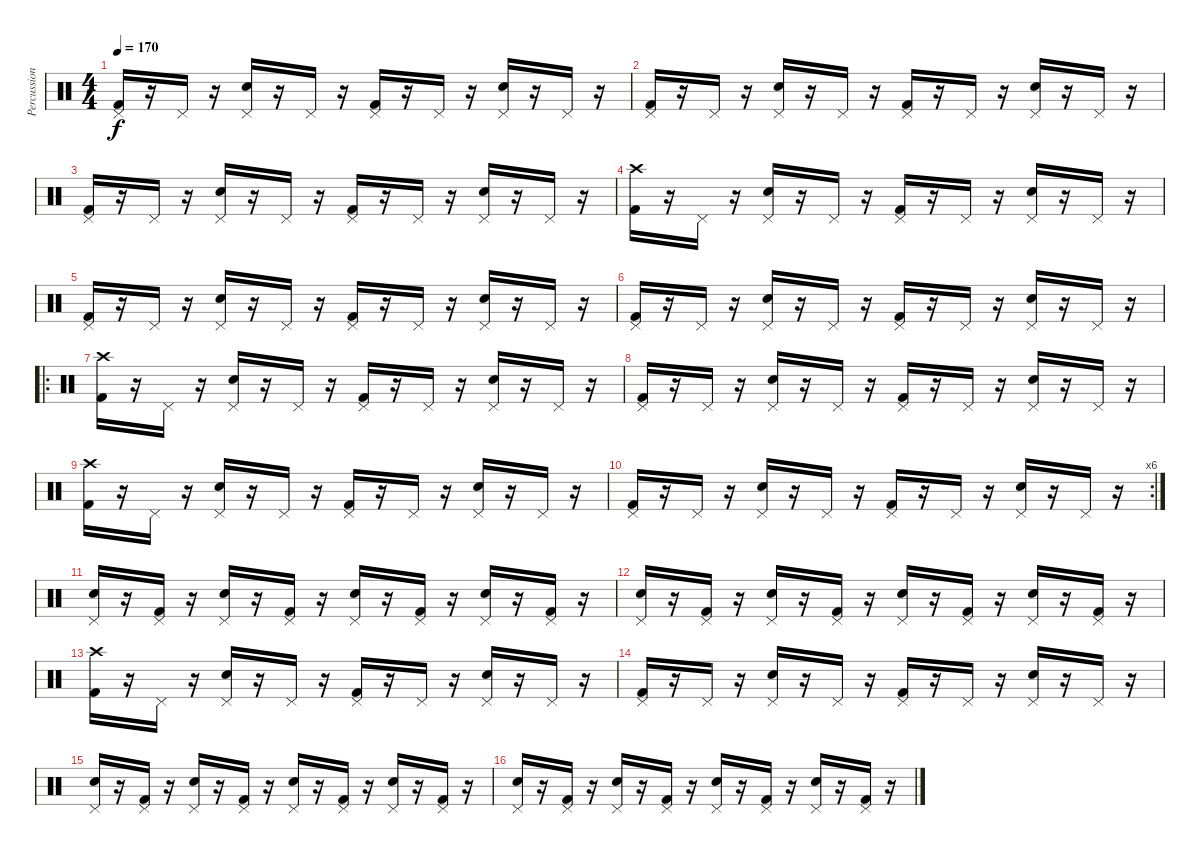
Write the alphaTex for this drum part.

\track ("Percussion" "Percussion") {instrument percussion}
\staff {score}
\articulation defaults
\ts (4 4)
\tempo 170
\clef neutral
\ks c
("Pedal Hi-Hat (hit)" "Kick (hit) 2").16{dy f} r.16 "Pedal Hi-Hat (hit)".16 r.16 ("Pedal Hi-Hat (hit)" "Snare (hit) 2").16 r.16 "Pedal Hi-Hat (hit)".16 r.16 ("Pedal Hi-Hat (hit)" "Kick (hit) 2").16 r.16 "Pedal Hi-Hat (hit)".16 r.16 ("Pedal Hi-Hat (hit)" "Snare (hit) 2").16 r.16 "Pedal Hi-Hat (hit)".16 r.16 |
("Pedal Hi-Hat (hit)" "Kick (hit) 2").16 r.16 "Pedal Hi-Hat (hit)".16 r.16 ("Pedal Hi-Hat (hit)" "Snare (hit) 2").16 r.16 "Pedal Hi-Hat (hit)".16 r.16 ("Pedal Hi-Hat (hit)" "Kick (hit) 2").16 r.16 "Pedal Hi-Hat (hit)".16 r.16 ("Pedal Hi-Hat (hit)" "Snare (hit) 2").16 r.16 "Pedal Hi-Hat (hit)".16 r.16 |
("Pedal Hi-Hat (hit)" "Kick (hit) 2").16 r.16 "Pedal Hi-Hat (hit)".16 r.16 ("Pedal Hi-Hat (hit)" "Snare (hit) 2").16 r.16 "Pedal Hi-Hat (hit)".16 r.16 ("Pedal Hi-Hat (hit)" "Kick (hit) 2").16 r.16 "Pedal Hi-Hat (hit)".16 r.16 ("Pedal Hi-Hat (hit)" "Snare (hit) 2").16 r.16 "Pedal Hi-Hat (hit)".16 r.16 |
("Crash high (hit)" "Kick (hit) 2").16 r.16 "Pedal Hi-Hat (hit)".16 r.16 ("Pedal Hi-Hat (hit)" "Snare (hit) 2").16 r.16 "Pedal Hi-Hat (hit)".16 r.16 ("Pedal Hi-Hat (hit)" "Kick (hit) 2").16 r.16 "Pedal Hi-Hat (hit)".16 r.16 ("Pedal Hi-Hat (hit)" "Snare (hit) 2").16 r.16 "Pedal Hi-Hat (hit)".16 r.16 |
("Pedal Hi-Hat (hit)" "Kick (hit) 2").16 r.16 "Pedal Hi-Hat (hit)".16 r.16 ("Pedal Hi-Hat (hit)" "Snare (hit) 2").16 r.16 "Pedal Hi-Hat (hit)".16 r.16 ("Pedal Hi-Hat (hit)" "Kick (hit) 2").16 r.16 "Pedal Hi-Hat (hit)".16 r.16 ("Pedal Hi-Hat (hit)" "Snare (hit) 2").16 r.16 "Pedal Hi-Hat (hit)".16 r.16 |
("Pedal Hi-Hat (hit)" "Kick (hit) 2").16 r.16 "Pedal Hi-Hat (hit)".16 r.16 ("Pedal Hi-Hat (hit)" "Snare (hit) 2").16 r.16 "Pedal Hi-Hat (hit)".16 r.16 ("Pedal Hi-Hat (hit)" "Kick (hit) 2").16 r.16 "Pedal Hi-Hat (hit)".16 r.16 ("Pedal Hi-Hat (hit)" "Snare (hit) 2").16 r.16 "Pedal Hi-Hat (hit)".16 r.16 |
\ro
("Crash high (hit)" "Kick (hit) 2").16 r.16 "Pedal Hi-Hat (hit)".16 r.16 ("Pedal Hi-Hat (hit)" "Snare (hit) 2").16 r.16 "Pedal Hi-Hat (hit)".16 r.16 ("Pedal Hi-Hat (hit)" "Kick (hit) 2").16 r.16 "Pedal Hi-Hat (hit)".16 r.16 ("Pedal Hi-Hat (hit)" "Snare (hit) 2").16 r.16 "Pedal Hi-Hat (hit)".16 r.16 |
("Pedal Hi-Hat (hit)" "Kick (hit) 2").16 r.16 "Pedal Hi-Hat (hit)".16 r.16 ("Pedal Hi-Hat (hit)" "Snare (hit) 2").16 r.16 "Pedal Hi-Hat (hit)".16 r.16 ("Pedal Hi-Hat (hit)" "Kick (hit) 2").16 r.16 "Pedal Hi-Hat (hit)".16 r.16 ("Pedal Hi-Hat (hit)" "Snare (hit) 2").16 r.16 "Pedal Hi-Hat (hit)".16 r.16 |
("Crash high (hit)" "Kick (hit) 2").16 r.16 "Pedal Hi-Hat (hit)".16 r.16 ("Pedal Hi-Hat (hit)" "Snare (hit) 2").16 r.16 "Pedal Hi-Hat (hit)".16 r.16 ("Pedal Hi-Hat (hit)" "Kick (hit) 2").16 r.16 "Pedal Hi-Hat (hit)".16 r.16 ("Pedal Hi-Hat (hit)" "Snare (hit) 2").16 r.16 "Pedal Hi-Hat (hit)".16 r.16 |
\rc 6
("Pedal Hi-Hat (hit)" "Kick (hit) 2").16 r.16 "Pedal Hi-Hat (hit)".16 r.16 ("Pedal Hi-Hat (hit)" "Snare (hit) 2").16 r.16 "Pedal Hi-Hat (hit)".16 r.16 ("Pedal Hi-Hat (hit)" "Kick (hit) 2").16 r.16 "Pedal Hi-Hat (hit)".16 r.16 ("Pedal Hi-Hat (hit)" "Snare (hit) 2").16 r.16 "Pedal Hi-Hat (hit)".16 r.16 |
("Pedal Hi-Hat (hit)" "Snare (hit) 2").16 r.16 ("Pedal Hi-Hat (hit)" "Kick (hit) 2").16 r.16 ("Pedal Hi-Hat (hit)" "Snare (hit) 2").16 r.16 ("Pedal Hi-Hat (hit)" "Kick (hit) 2").16 r.16 ("Pedal Hi-Hat (hit)" "Snare (hit) 2").16 r.16 ("Pedal Hi-Hat (hit)" "Kick (hit) 2").16 r.16 ("Pedal Hi-Hat (hit)" "Snare (hit) 2").16 r.16 ("Pedal Hi-Hat (hit)" "Kick (hit) 2").16 r.16 |
("Pedal Hi-Hat (hit)" "Snare (hit) 2").16 r.16 ("Pedal Hi-Hat (hit)" "Kick (hit) 2").16 r.16 ("Pedal Hi-Hat (hit)" "Snare (hit) 2").16 r.16 ("Pedal Hi-Hat (hit)" "Kick (hit) 2").16 r.16 ("Pedal Hi-Hat (hit)" "Snare (hit) 2").16 r.16 ("Pedal Hi-Hat (hit)" "Kick (hit) 2").16 r.16 ("Pedal Hi-Hat (hit)" "Snare (hit) 2").16 r.16 ("Pedal Hi-Hat (hit)" "Kick (hit) 2").16 r.16 |
("Crash high (hit)" "Kick (hit) 2").16 r.16 "Pedal Hi-Hat (hit)".16 r.16 ("Pedal Hi-Hat (hit)" "Snare (hit) 2").16 r.16 "Pedal Hi-Hat (hit)".16 r.16 ("Pedal Hi-Hat (hit)" "Kick (hit) 2").16 r.16 "Pedal Hi-Hat (hit)".16 r.16 ("Pedal Hi-Hat (hit)" "Snare (hit) 2").16 r.16 "Pedal Hi-Hat (hit)".16 r.16 |
("Pedal Hi-Hat (hit)" "Kick (hit) 2").16 r.16 "Pedal Hi-Hat (hit)".16 r.16 ("Pedal Hi-Hat (hit)" "Snare (hit) 2").16 r.16 "Pedal Hi-Hat (hit)".16 r.16 ("Pedal Hi-Hat (hit)" "Kick (hit) 2").16 r.16 "Pedal Hi-Hat (hit)".16 r.16 ("Pedal Hi-Hat (hit)" "Snare (hit) 2").16 r.16 "Pedal Hi-Hat (hit)".16 r.16 |
("Pedal Hi-Hat (hit)" "Snare (hit) 2").16 r.16 ("Pedal Hi-Hat (hit)" "Kick (hit) 2").16 r.16 ("Pedal Hi-Hat (hit)" "Snare (hit) 2").16 r.16 ("Pedal Hi-Hat (hit)" "Kick (hit) 2").16 r.16 ("Pedal Hi-Hat (hit)" "Snare (hit) 2").16 r.16 ("Pedal Hi-Hat (hit)" "Kick (hit) 2").16 r.16 ("Pedal Hi-Hat (hit)" "Snare (hit) 2").16 r.16 ("Pedal Hi-Hat (hit)" "Kick (hit) 2").16 r.16 |
("Pedal Hi-Hat (hit)" "Snare (hit) 2").16 r.16 ("Pedal Hi-Hat (hit)" "Kick (hit) 2").16 r.16 ("Pedal Hi-Hat (hit)" "Snare (hit) 2").16 r.16 ("Pedal Hi-Hat (hit)" "Kick (hit) 2").16 r.16 ("Pedal Hi-Hat (hit)" "Snare (hit) 2").16 r.16 ("Pedal Hi-Hat (hit)" "Kick (hit) 2").16 r.16 ("Pedal Hi-Hat (hit)" "Snare (hit) 2").16 r.16 ("Pedal Hi-Hat (hit)" "Kick (hit) 2").16 r.16
